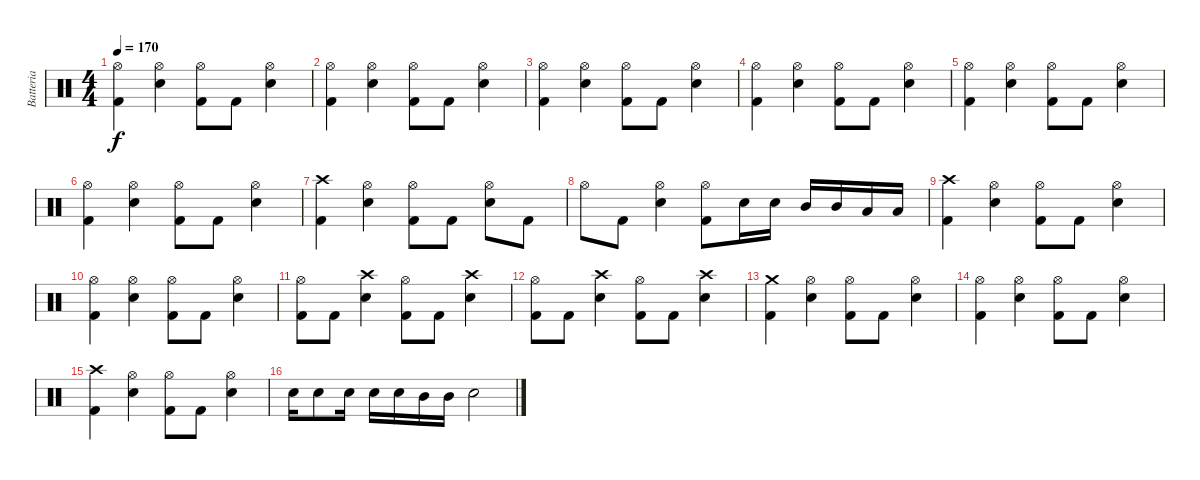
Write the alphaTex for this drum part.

\track ("Batteria" "Batteria") {instrument percussion}
\staff {score}
\articulation defaults
\ts (4 4)
\tempo 170
\clef neutral
\ks c
("Hi-Hat (open)" "Kick (hit) 2").4{dy f} ("Hi-Hat (open)" "Snare (hit) 2").4 ("Hi-Hat (open)" "Kick (hit) 2").8 "Kick (hit) 2".8 ("Hi-Hat (open)" "Snare (hit) 2").4 |
("Hi-Hat (open)" "Kick (hit) 2").4 ("Hi-Hat (open)" "Snare (hit) 2").4 ("Hi-Hat (open)" "Kick (hit) 2").8 "Kick (hit) 2".8 ("Hi-Hat (open)" "Snare (hit) 2").4 |
("Hi-Hat (open)" "Kick (hit) 2").4 ("Hi-Hat (open)" "Snare (hit) 2").4 ("Hi-Hat (open)" "Kick (hit) 2").8 "Kick (hit) 2".8 ("Hi-Hat (open)" "Snare (hit) 2").4 |
("Hi-Hat (open)" "Kick (hit) 2").4 ("Hi-Hat (open)" "Snare (hit) 2").4 ("Hi-Hat (open)" "Kick (hit) 2").8 "Kick (hit) 2".8 ("Hi-Hat (open)" "Snare (hit) 2").4 |
("Hi-Hat (open)" "Kick (hit) 2").4 ("Hi-Hat (open)" "Snare (hit) 2").4 ("Hi-Hat (open)" "Kick (hit) 2").8 "Kick (hit) 2".8 ("Hi-Hat (open)" "Snare (hit) 2").4 |
("Hi-Hat (open)" "Kick (hit) 2").4 ("Hi-Hat (open)" "Snare (hit) 2").4 ("Hi-Hat (open)" "Kick (hit) 2").8 "Kick (hit) 2".8 ("Hi-Hat (open)" "Snare (hit) 2").4 |
("Crash high (hit)" "Kick (hit) 2").4 ("Hi-Hat (open)" "Snare (hit) 2").4 ("Hi-Hat (open)" "Kick (hit) 2").8 "Kick (hit) 2".8 ("Hi-Hat (open)" "Snare (hit) 2").8 "Kick (hit) 2".8 |
"Hi-Hat (open)".8 "Kick (hit) 2".8 ("Hi-Hat (open)" "Snare (hit) 2").4 ("Hi-Hat (open)" "Kick (hit) 2").8 "Snare (hit) 2".16 "Snare (hit) 2".16 "Mid Tom (hit)".16 "Mid Tom (hit)".16 "Low Tom (hit)".16 "Low Tom (hit)".16 |
("Crash high (hit)" "Kick (hit) 2").4 ("Hi-Hat (open)" "Snare (hit) 2").4 ("Hi-Hat (open)" "Kick (hit) 2").8 "Kick (hit) 2".8 ("Hi-Hat (open)" "Snare (hit) 2").4 |
("Hi-Hat (open)" "Kick (hit) 2").4 ("Hi-Hat (open)" "Snare (hit) 2").4 ("Hi-Hat (open)" "Kick (hit) 2").8 "Kick (hit) 2".8 ("Hi-Hat (open)" "Snare (hit) 2").4 |
("Hi-Hat (open)" "Kick (hit) 2").8 "Kick (hit) 2".8 ("Crash high (hit)" "Snare (hit) 2").4 ("Hi-Hat (open)" "Kick (hit) 2").8 "Kick (hit) 2".8 ("Crash high (hit)" "Snare (hit) 2").4 |
("Hi-Hat (open)" "Kick (hit) 2").8 "Kick (hit) 2".8 ("Crash high (hit)" "Snare (hit) 2").4 ("Hi-Hat (open)" "Kick (hit) 2").8 "Kick (hit) 2".8 ("Crash high (hit)" "Snare (hit) 2").4 |
("Crash medium (hit)" "Kick (hit) 2").4 ("Hi-Hat (open)" "Snare (hit) 2").4 ("Hi-Hat (open)" "Kick (hit) 2").8 "Kick (hit) 2".8 ("Hi-Hat (open)" "Snare (hit) 2").4 |
("Hi-Hat (open)" "Kick (hit) 2").4 ("Hi-Hat (open)" "Snare (hit) 2").4 ("Hi-Hat (open)" "Kick (hit) 2").8 "Kick (hit) 2".8 ("Hi-Hat (open)" "Snare (hit) 2").4 |
("Crash high (hit)" "Kick (hit) 2").4 ("Hi-Hat (open)" "Snare (hit) 2").4 ("Hi-Hat (open)" "Kick (hit) 2").8 "Kick (hit) 2".8 ("Hi-Hat (open)" "Snare (hit) 2").4 |
"Snare (hit) 2".16 "Snare (hit) 2".8 "Snare (hit) 2".16 "Snare (hit) 2".16 "Snare (hit) 2".16 "Mid Tom (hit)".16 "Mid Tom (hit)".16 "Snare (hit) 2".2
